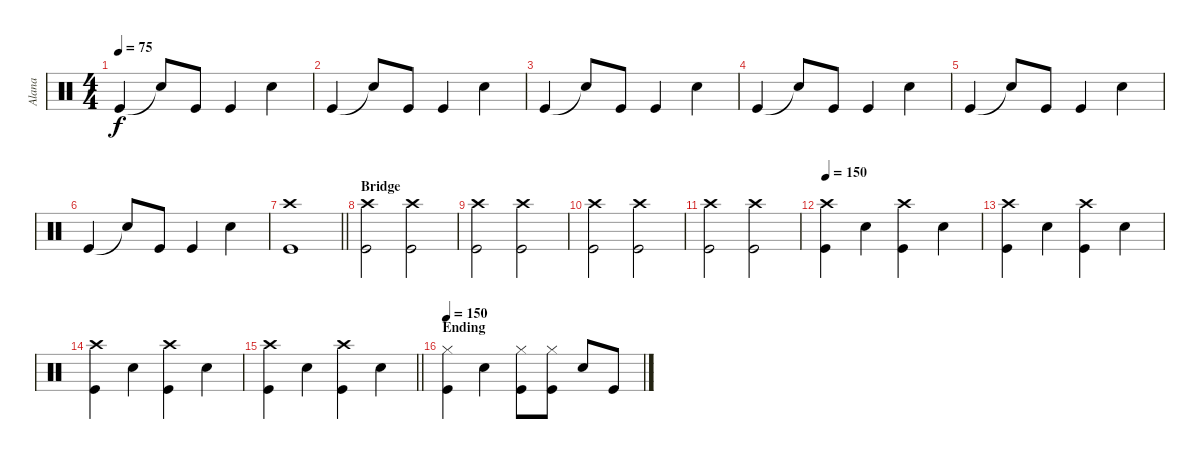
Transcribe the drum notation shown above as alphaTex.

\track ("Alana" "Alana") {instrument percussion}
\staff {score}
\articulation defaults
\ts (4 4)
\tempo 75
\clef neutral
\ks c "Kick (hit)".4{dy f} "Snare (hit)"{t}.8 "Kick (hit)".8 "Kick (hit)".4 "Electric Snare (hit)".4
|
"Kick (hit)".4 "Snare (hit)"{t}.8 "Kick (hit)".8 "Kick (hit)".4 "Electric Snare (hit)".4 |
"Kick (hit)".4 "Snare (hit)"{t}.8 "Kick (hit)".8 "Kick (hit)".4 "Electric Snare (hit)".4 |
"Kick (hit)".4 "Snare (hit)"{t}.8 "Kick (hit)".8 "Kick (hit)".4 "Electric Snare (hit)".4 |
"Kick (hit)".4 "Snare (hit)"{t}.8 "Kick (hit)".8 "Kick (hit)".4 "Electric Snare (hit)".4 |
"Kick (hit)".4 "Snare (hit)"{t}.8 "Kick (hit)".8 "Kick (hit)".4 "Electric Snare (hit)".4 |
\barLineRight lightlight
("Crash high (hit)" "Kick (hit)").1 |
\section ("" "Bridge")
("Crash high (hit)" "Kick (hit)").2 ("Crash high (hit)" "Kick (hit)").2 |
("Crash high (hit)" "Kick (hit)").2 ("Crash high (hit)" "Kick (hit)").2 |
("Crash high (hit)" "Kick (hit)").2 ("Crash high (hit)" "Kick (hit)").2 |
("Crash high (hit)" "Kick (hit)").2 ("Crash high (hit)" "Kick (hit)").2 |
\tempo 150
("Crash high (hit)" "Kick (hit)").4 "Electric Snare (hit)".4 ("Crash high (hit)" "Kick (hit)").4 "Electric Snare (hit)".4 |
("Crash high (hit)" "Kick (hit)").4 "Electric Snare (hit)".4 ("Crash high (hit)" "Kick (hit)").4 "Electric Snare (hit)".4 |
("Crash high (hit)" "Kick (hit)").4 "Electric Snare (hit)".4 ("Crash high (hit)" "Kick (hit)").4 "Electric Snare (hit)".4 |
\barLineRight lightlight
("Crash high (hit)" "Kick (hit)").4 "Electric Snare (hit)".4 ("Crash high (hit)" "Kick (hit)").4 "Electric Snare (hit)".4 |
\section ("" "Ending")
\tempo 150
("Hi-Hat (closed)" "Kick (hit)").4 "Electric Snare (hit)".4 ("Hi-Hat (closed)" "Kick (hit)").8 ("Hi-Hat (closed)" "Kick (hit)").8 "Electric Snare (hit)".8 "Kick (hit)".8
